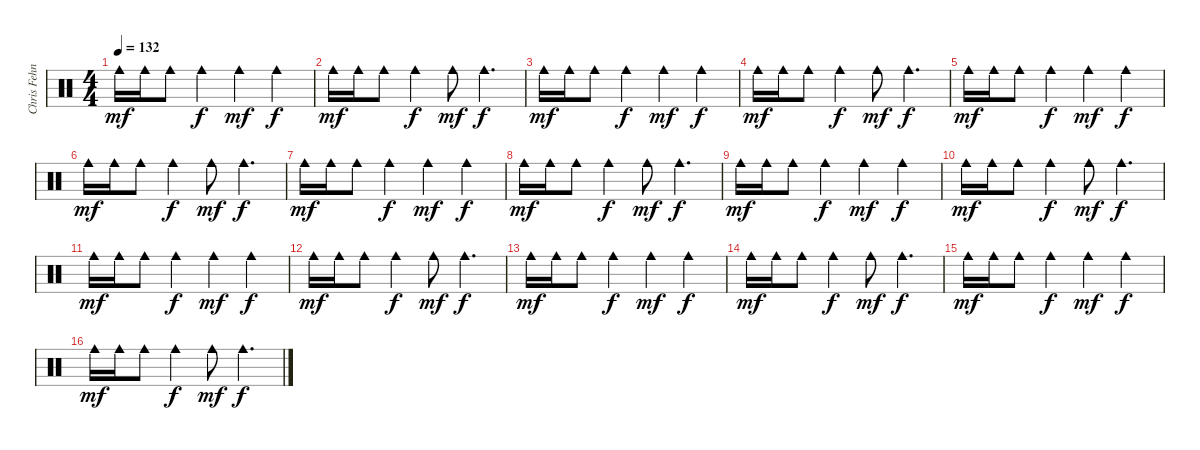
\track ("Chris Fehn" "Chris Fehn") {instrument percussion}
\staff {score}
\articulation defaults
\ts (4 4)
\tempo 132
\clef neutral
\ks c "Cowbell medium (hit)".16{dy mf} "Cowbell medium (hit)".16 "Cowbell medium (hit)".8 "Cowbell medium (hit)".4{dy f} "Cowbell medium (hit)".4{dy mf} "Cowbell medium (hit)".4{dy f}
|
"Cowbell medium (hit)".16{dy mf} "Cowbell medium (hit)".16 "Cowbell medium (hit)".8 "Cowbell medium (hit)".4{dy f} "Cowbell medium (hit)".8{dy mf} "Cowbell medium (hit)".4{d dy f} |
"Cowbell medium (hit)".16{dy mf} "Cowbell medium (hit)".16 "Cowbell medium (hit)".8 "Cowbell medium (hit)".4{dy f} "Cowbell medium (hit)".4{dy mf} "Cowbell medium (hit)".4{dy f} |
"Cowbell medium (hit)".16{dy mf} "Cowbell medium (hit)".16 "Cowbell medium (hit)".8 "Cowbell medium (hit)".4{dy f} "Cowbell medium (hit)".8{dy mf} "Cowbell medium (hit)".4{d dy f} |
"Cowbell medium (hit)".16{dy mf} "Cowbell medium (hit)".16 "Cowbell medium (hit)".8 "Cowbell medium (hit)".4{dy f} "Cowbell medium (hit)".4{dy mf} "Cowbell medium (hit)".4{dy f} |
"Cowbell medium (hit)".16{dy mf} "Cowbell medium (hit)".16 "Cowbell medium (hit)".8 "Cowbell medium (hit)".4{dy f} "Cowbell medium (hit)".8{dy mf} "Cowbell medium (hit)".4{d dy f} |
"Cowbell medium (hit)".16{dy mf} "Cowbell medium (hit)".16 "Cowbell medium (hit)".8 "Cowbell medium (hit)".4{dy f} "Cowbell medium (hit)".4{dy mf} "Cowbell medium (hit)".4{dy f} |
"Cowbell medium (hit)".16{dy mf} "Cowbell medium (hit)".16 "Cowbell medium (hit)".8 "Cowbell medium (hit)".4{dy f} "Cowbell medium (hit)".8{dy mf} "Cowbell medium (hit)".4{d dy f} |
"Cowbell medium (hit)".16{dy mf} "Cowbell medium (hit)".16 "Cowbell medium (hit)".8 "Cowbell medium (hit)".4{dy f} "Cowbell medium (hit)".4{dy mf} "Cowbell medium (hit)".4{dy f} |
"Cowbell medium (hit)".16{dy mf} "Cowbell medium (hit)".16 "Cowbell medium (hit)".8 "Cowbell medium (hit)".4{dy f} "Cowbell medium (hit)".8{dy mf} "Cowbell medium (hit)".4{d dy f} |
"Cowbell medium (hit)".16{dy mf} "Cowbell medium (hit)".16 "Cowbell medium (hit)".8 "Cowbell medium (hit)".4{dy f} "Cowbell medium (hit)".4{dy mf} "Cowbell medium (hit)".4{dy f} |
"Cowbell medium (hit)".16{dy mf} "Cowbell medium (hit)".16 "Cowbell medium (hit)".8 "Cowbell medium (hit)".4{dy f} "Cowbell medium (hit)".8{dy mf} "Cowbell medium (hit)".4{d dy f} |
"Cowbell medium (hit)".16{dy mf} "Cowbell medium (hit)".16 "Cowbell medium (hit)".8 "Cowbell medium (hit)".4{dy f} "Cowbell medium (hit)".4{dy mf} "Cowbell medium (hit)".4{dy f} |
"Cowbell medium (hit)".16{dy mf} "Cowbell medium (hit)".16 "Cowbell medium (hit)".8 "Cowbell medium (hit)".4{dy f} "Cowbell medium (hit)".8{dy mf} "Cowbell medium (hit)".4{d dy f} |
"Cowbell medium (hit)".16{dy mf} "Cowbell medium (hit)".16 "Cowbell medium (hit)".8 "Cowbell medium (hit)".4{dy f} "Cowbell medium (hit)".4{dy mf} "Cowbell medium (hit)".4{dy f} |
"Cowbell medium (hit)".16{dy mf} "Cowbell medium (hit)".16 "Cowbell medium (hit)".8 "Cowbell medium (hit)".4{dy f} "Cowbell medium (hit)".8{dy mf} "Cowbell medium (hit)".4{d dy f}
